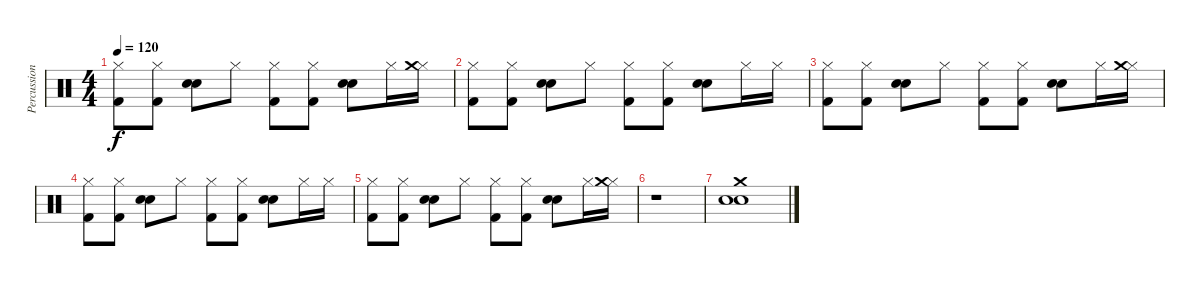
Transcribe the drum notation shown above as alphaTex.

\track ("Percussions" "Percussion") {instrument percussion}
\staff {score}
\articulation defaults
\ts (4 4)
\tempo 120
\clef neutral
\ks c
("Kick (hit) 2" "Hi-Hat (closed)").8{dy f} ("Kick (hit) 2" "Hi-Hat (closed)").8 ("Hand Clap (hit)" "Electric Snare (hit)").8 "Hi-Hat (closed)".8 ("Kick (hit) 2" "Hi-Hat (closed)").8 ("Kick (hit) 2" "Hi-Hat (closed)").8 ("Hand Clap (hit)" "Electric Snare (hit)").8 "Hi-Hat (closed)".16 ("Hi-Hat (closed)" "Crash medium (hit)").16 |
("Kick (hit) 2" "Hi-Hat (closed)").8 ("Kick (hit) 2" "Hi-Hat (closed)").8 ("Hand Clap (hit)" "Electric Snare (hit)").8 "Hi-Hat (closed)".8 ("Kick (hit) 2" "Hi-Hat (closed)").8 ("Kick (hit) 2" "Hi-Hat (closed)").8 ("Hand Clap (hit)" "Electric Snare (hit)").8 "Hi-Hat (closed)".16 "Hi-Hat (closed)".16 |
("Kick (hit) 2" "Hi-Hat (closed)").8 ("Kick (hit) 2" "Hi-Hat (closed)").8 ("Hand Clap (hit)" "Electric Snare (hit)").8 "Hi-Hat (closed)".8 ("Kick (hit) 2" "Hi-Hat (closed)").8 ("Kick (hit) 2" "Hi-Hat (closed)").8 ("Hand Clap (hit)" "Electric Snare (hit)").8 "Hi-Hat (closed)".16 ("Hi-Hat (closed)" "Crash medium (hit)").16 |
("Kick (hit) 2" "Hi-Hat (closed)").8 ("Kick (hit) 2" "Hi-Hat (closed)").8 ("Hand Clap (hit)" "Electric Snare (hit)").8 "Hi-Hat (closed)".8 ("Kick (hit) 2" "Hi-Hat (closed)").8 ("Kick (hit) 2" "Hi-Hat (closed)").8 ("Hand Clap (hit)" "Electric Snare (hit)").8 "Hi-Hat (closed)".16 "Hi-Hat (closed)".16 |
("Kick (hit) 2" "Hi-Hat (closed)").8 ("Kick (hit) 2" "Hi-Hat (closed)").8 ("Hand Clap (hit)" "Electric Snare (hit)").8 "Hi-Hat (closed)".8 ("Kick (hit) 2" "Hi-Hat (closed)").8 ("Kick (hit) 2" "Hi-Hat (closed)").8 ("Hand Clap (hit)" "Electric Snare (hit)").8 "Hi-Hat (closed)".16 ("Hi-Hat (closed)" "Crash medium (hit)").16 |
r.1 |
("Hand Clap (hit)" "Electric Snare (hit)" "Crash medium (hit)").1
